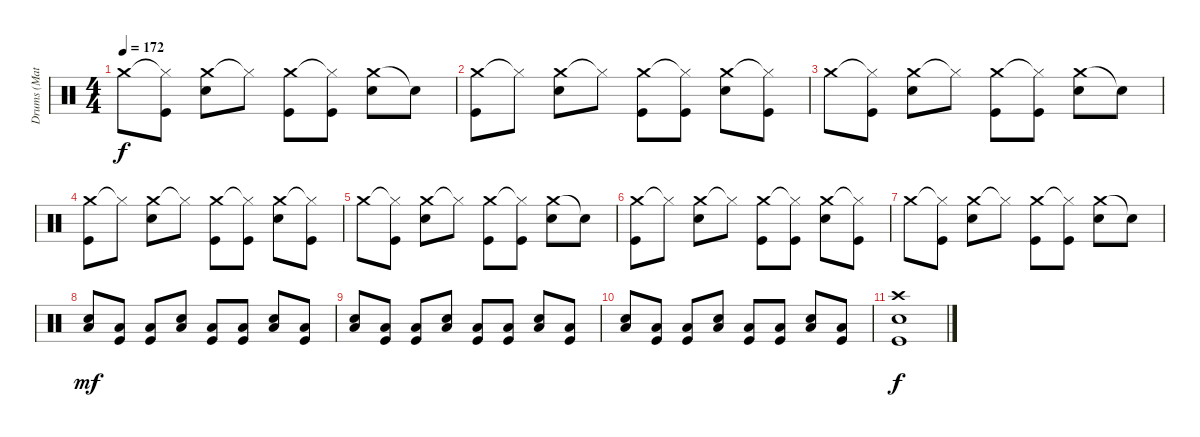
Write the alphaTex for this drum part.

\track ("Drums (Matt)" "Drums (Mat") {instrument percussion}
\staff {score}
\articulation defaults
\ts (4 4)
\tempo 172
\clef neutral
\ks c "Crash medium (hit)".8{dy f}
("Hi-Hat (closed)"{t} "Kick (hit)").8 ("Crash medium (hit)" "Electric Snare (hit)").8 "Hi-Hat (closed)"{t}.8 ("Crash medium (hit)" "Kick (hit)").8 ("Hi-Hat (closed)"{t} "Kick (hit)").8 ("Crash medium (hit)" "Electric Snare (hit)").8 "Snare (hit)"{t}.8 |
("Crash medium (hit)" "Kick (hit)").8 "Hi-Hat (closed)"{t}.8 ("Crash medium (hit)" "Electric Snare (hit)").8 "Hi-Hat (closed)"{t}.8 ("Crash medium (hit)" "Kick (hit)").8 ("Hi-Hat (closed)"{t} "Kick (hit)").8 ("Crash medium (hit)" "Electric Snare (hit)").8 ("Hi-Hat (closed)"{t} "Kick (hit)").8 |
"Crash medium (hit)".8 ("Hi-Hat (closed)"{t} "Kick (hit)").8 ("Crash medium (hit)" "Electric Snare (hit)").8 "Hi-Hat (closed)"{t}.8 ("Crash medium (hit)" "Kick (hit)").8 ("Hi-Hat (closed)"{t} "Kick (hit)").8 ("Crash medium (hit)" "Electric Snare (hit)").8 "Snare (hit)"{t}.8 |
("Crash medium (hit)" "Kick (hit)").8 "Hi-Hat (closed)"{t}.8 ("Crash medium (hit)" "Electric Snare (hit)").8 "Hi-Hat (closed)"{t}.8 ("Crash medium (hit)" "Kick (hit)").8 ("Hi-Hat (closed)"{t} "Kick (hit)").8 ("Crash medium (hit)" "Electric Snare (hit)").8 ("Hi-Hat (closed)"{t} "Kick (hit)").8 |
"Crash medium (hit)".8 ("Hi-Hat (closed)"{t} "Kick (hit)").8 ("Crash medium (hit)" "Electric Snare (hit)").8 "Hi-Hat (closed)"{t}.8 ("Crash medium (hit)" "Kick (hit)").8 ("Hi-Hat (closed)"{t} "Kick (hit)").8 ("Crash medium (hit)" "Electric Snare (hit)").8 "Snare (hit)"{t}.8 |
("Crash medium (hit)" "Kick (hit)").8 "Hi-Hat (closed)"{t}.8 ("Crash medium (hit)" "Electric Snare (hit)").8 "Hi-Hat (closed)"{t}.8 ("Crash medium (hit)" "Kick (hit)").8 ("Hi-Hat (closed)"{t} "Kick (hit)").8 ("Crash medium (hit)" "Electric Snare (hit)").8 ("Hi-Hat (closed)"{t} "Kick (hit)").8 |
"Crash medium (hit)".8 ("Hi-Hat (closed)"{t} "Kick (hit)").8 ("Crash medium (hit)" "Electric Snare (hit)").8 "Hi-Hat (closed)"{t}.8 ("Crash medium (hit)" "Kick (hit)").8 ("Hi-Hat (closed)"{t} "Kick (hit)").8 ("Crash medium (hit)" "Electric Snare (hit)").8 "Snare (hit)"{t}.8 |
("Electric Snare (hit)" "Low Tom (hit)").8{dy mf} ("Low Tom (hit)" "Kick (hit)").8 ("Low Tom (hit)" "Kick (hit)").8 ("Electric Snare (hit)" "Low Tom (hit)").8 ("Low Tom (hit)" "Kick (hit)").8 ("Low Tom (hit)" "Kick (hit)").8 ("Electric Snare (hit)" "Low Tom (hit)").8 ("Low Tom (hit)" "Kick (hit)").8 |
("Electric Snare (hit)" "Low Tom (hit)").8 ("Low Tom (hit)" "Kick (hit)").8 ("Low Tom (hit)" "Kick (hit)").8 ("Electric Snare (hit)" "Low Tom (hit)").8 ("Low Tom (hit)" "Kick (hit)").8 ("Low Tom (hit)" "Kick (hit)").8 ("Electric Snare (hit)" "Low Tom (hit)").8 ("Low Tom (hit)" "Kick (hit)").8 |
("Electric Snare (hit)" "Low Tom (hit)").8 ("Low Tom (hit)" "Kick (hit)").8 ("Low Tom (hit)" "Kick (hit)").8 ("Electric Snare (hit)" "Low Tom (hit)").8 ("Low Tom (hit)" "Kick (hit)").8 ("Low Tom (hit)" "Kick (hit)").8 ("Electric Snare (hit)" "Low Tom (hit)").8 ("Low Tom (hit)" "Kick (hit)").8 |
("Crash high (hit)" "Electric Snare (hit)" "Kick (hit)").1{dy f}
